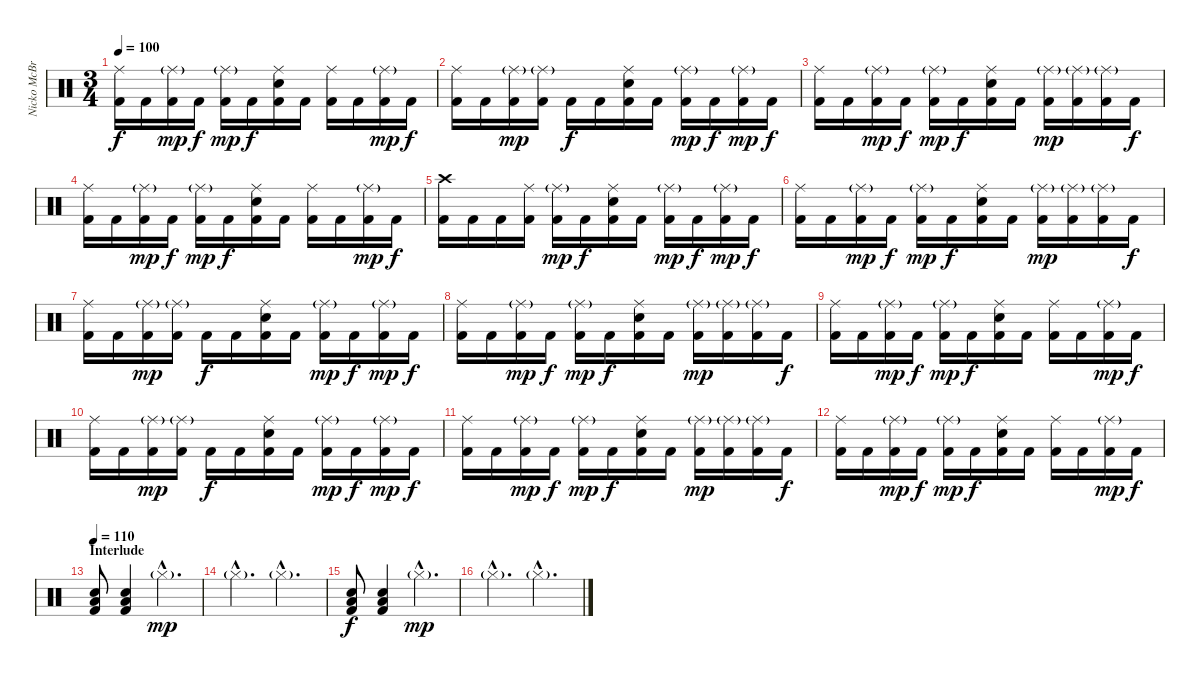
\track ("Nicko McBrain" "Nicko McBr") {instrument percussion}
\staff {score}
\articulation defaults
\ts (3 4)
\tempo 100
\clef neutral
\ks c
("Ride (middle)" "Kick (hit) 2").16{dy f} "Kick (hit) 2".16 ("Ride (middle)"{g} "Kick (hit) 2").16{dy mp} "Kick (hit) 2".16{dy f} ("Ride (middle)"{g} "Kick (hit) 2").16{dy mp} "Kick (hit) 2".16{dy f} ("Ride (middle)" "Electric Snare (hit)" "Kick (hit) 2").16 "Kick (hit) 2".16 ("Ride (middle)" "Kick (hit) 2").16 "Kick (hit) 2".16 ("Ride (middle)"{g} "Kick (hit) 2").16{dy mp} "Kick (hit) 2".16{dy f} |
("Ride (middle)" "Kick (hit) 2").16 "Kick (hit) 2".16 ("Ride (middle)"{g} "Kick (hit) 2").16{dy mp} ("Ride (middle)"{g} "Kick (hit) 2").16 "Kick (hit) 2".16{dy f} "Kick (hit) 2".16 ("Ride (middle)" "Electric Snare (hit)" "Kick (hit) 2").16 "Kick (hit) 2".16 ("Ride (middle)"{g} "Kick (hit) 2").16{dy mp} "Kick (hit) 2".16{dy f} ("Ride (middle)"{g} "Kick (hit) 2").16{dy mp} "Kick (hit) 2".16{dy f} |
("Ride (middle)" "Kick (hit) 2").16 "Kick (hit) 2".16 ("Ride (middle)"{g} "Kick (hit) 2").16{dy mp} "Kick (hit) 2".16{dy f} ("Ride (middle)"{g} "Kick (hit) 2").16{dy mp} "Kick (hit) 2".16{dy f} ("Ride (middle)" "Electric Snare (hit)" "Kick (hit) 2").16 "Kick (hit) 2".16 ("Ride (middle)"{g} "Kick (hit) 2").16{dy mp} ("Ride (middle)"{g} "Kick (hit) 2").16 ("Ride (middle)"{g} "Kick (hit) 2").16 "Kick (hit) 2".16{dy f} |
("Ride (middle)" "Kick (hit) 2").16 "Kick (hit) 2".16 ("Ride (middle)"{g} "Kick (hit) 2").16{dy mp} "Kick (hit) 2".16{dy f} ("Ride (middle)"{g} "Kick (hit) 2").16{dy mp} "Kick (hit) 2".16{dy f} ("Ride (middle)" "Electric Snare (hit)" "Kick (hit) 2").16 "Kick (hit) 2".16 ("Ride (middle)" "Kick (hit) 2").16 "Kick (hit) 2".16 ("Ride (middle)"{g} "Kick (hit) 2").16{dy mp} "Kick (hit) 2".16{dy f} |
("Crash high (hit)" "Kick (hit) 2").16 "Kick (hit) 2".16 "Kick (hit) 2".16 ("Ride (middle)" "Kick (hit) 2").16 ("Ride (middle)"{g} "Kick (hit) 2").16{dy mp} "Kick (hit) 2".16{dy f} ("Ride (middle)" "Electric Snare (hit)" "Kick (hit) 2").16 "Kick (hit) 2".16 ("Ride (middle)"{g} "Kick (hit) 2").16{dy mp} "Kick (hit) 2".16{dy f} ("Ride (middle)"{g} "Kick (hit) 2").16{dy mp} "Kick (hit) 2".16{dy f} |
("Ride (middle)" "Kick (hit) 2").16 "Kick (hit) 2".16 ("Ride (middle)"{g} "Kick (hit) 2").16{dy mp} "Kick (hit) 2".16{dy f} ("Ride (middle)"{g} "Kick (hit) 2").16{dy mp} "Kick (hit) 2".16{dy f} ("Ride (middle)" "Electric Snare (hit)" "Kick (hit) 2").16 "Kick (hit) 2".16 ("Ride (middle)"{g} "Kick (hit) 2").16{dy mp} ("Ride (middle)"{g} "Kick (hit) 2").16 ("Ride (middle)"{g} "Kick (hit) 2").16 "Kick (hit) 2".16{dy f} |
("Ride (middle)" "Kick (hit) 2").16 "Kick (hit) 2".16 ("Ride (middle)"{g} "Kick (hit) 2").16{dy mp} ("Ride (middle)"{g} "Kick (hit) 2").16 "Kick (hit) 2".16{dy f} "Kick (hit) 2".16 ("Ride (middle)" "Electric Snare (hit)" "Kick (hit) 2").16 "Kick (hit) 2".16 ("Ride (middle)"{g} "Kick (hit) 2").16{dy mp} "Kick (hit) 2".16{dy f} ("Ride (middle)"{g} "Kick (hit) 2").16{dy mp} "Kick (hit) 2".16{dy f} |
("Ride (middle)" "Kick (hit) 2").16 "Kick (hit) 2".16 ("Ride (middle)"{g} "Kick (hit) 2").16{dy mp} "Kick (hit) 2".16{dy f} ("Ride (middle)"{g} "Kick (hit) 2").16{dy mp} "Kick (hit) 2".16{dy f} ("Ride (middle)" "Electric Snare (hit)" "Kick (hit) 2").16 "Kick (hit) 2".16 ("Ride (middle)"{g} "Kick (hit) 2").16{dy mp} ("Ride (middle)"{g} "Kick (hit) 2").16 ("Ride (middle)"{g} "Kick (hit) 2").16 "Kick (hit) 2".16{dy f} |
("Ride (middle)" "Kick (hit) 2").16 "Kick (hit) 2".16 ("Ride (middle)"{g} "Kick (hit) 2").16{dy mp} "Kick (hit) 2".16{dy f} ("Ride (middle)"{g} "Kick (hit) 2").16{dy mp} "Kick (hit) 2".16{dy f} ("Ride (middle)" "Electric Snare (hit)" "Kick (hit) 2").16 "Kick (hit) 2".16 ("Ride (middle)" "Kick (hit) 2").16 "Kick (hit) 2".16 ("Ride (middle)"{g} "Kick (hit) 2").16{dy mp} "Kick (hit) 2".16{dy f} |
("Ride (middle)" "Kick (hit) 2").16 "Kick (hit) 2".16 ("Ride (middle)"{g} "Kick (hit) 2").16{dy mp} ("Ride (middle)"{g} "Kick (hit) 2").16 "Kick (hit) 2".16{dy f} "Kick (hit) 2".16 ("Ride (middle)" "Electric Snare (hit)" "Kick (hit) 2").16 "Kick (hit) 2".16 ("Ride (middle)"{g} "Kick (hit) 2").16{dy mp} "Kick (hit) 2".16{dy f} ("Ride (middle)"{g} "Kick (hit) 2").16{dy mp} "Kick (hit) 2".16{dy f} |
("Ride (middle)" "Kick (hit) 2").16 "Kick (hit) 2".16 ("Ride (middle)"{g} "Kick (hit) 2").16{dy mp} "Kick (hit) 2".16{dy f} ("Ride (middle)"{g} "Kick (hit) 2").16{dy mp} "Kick (hit) 2".16{dy f} ("Ride (middle)" "Electric Snare (hit)" "Kick (hit) 2").16 "Kick (hit) 2".16 ("Ride (middle)"{g} "Kick (hit) 2").16{dy mp} ("Ride (middle)"{g} "Kick (hit) 2").16 ("Ride (middle)"{g} "Kick (hit) 2").16 "Kick (hit) 2".16{dy f} |
("Ride (middle)" "Kick (hit) 2").16 "Kick (hit) 2".16 ("Ride (middle)"{g} "Kick (hit) 2").16{dy mp} "Kick (hit) 2".16{dy f} ("Ride (middle)"{g} "Kick (hit) 2").16{dy mp} "Kick (hit) 2".16{dy f} ("Ride (middle)" "Electric Snare (hit)" "Kick (hit) 2").16 "Kick (hit) 2".16 ("Ride (middle)" "Kick (hit) 2").16 "Kick (hit) 2".16 ("Ride (middle)"{g} "Kick (hit) 2").16{dy mp} "Kick (hit) 2".16{dy f} |
\section ("" "Interlude")
\tempo 110
("Electric Snare (hit)" "Low Floor Tom (hit)" "Kick (hit) 2").8 ("Electric Snare (hit)" "Low Floor Tom (hit)" "Kick (hit) 2").4 "Hi-Hat (closed)"{g hac}.4{d dy mp} |
"Hi-Hat (closed)"{g hac}.4{d} "Hi-Hat (closed)"{g hac}.4{d} |
("Electric Snare (hit)" "Low Floor Tom (hit)" "Kick (hit) 2").8{dy f} ("Electric Snare (hit)" "Low Floor Tom (hit)" "Kick (hit) 2").4 "Hi-Hat (closed)"{g hac}.4{d dy mp} |
"Hi-Hat (closed)"{g hac}.4{d} "Hi-Hat (closed)"{g hac}.4{d}
